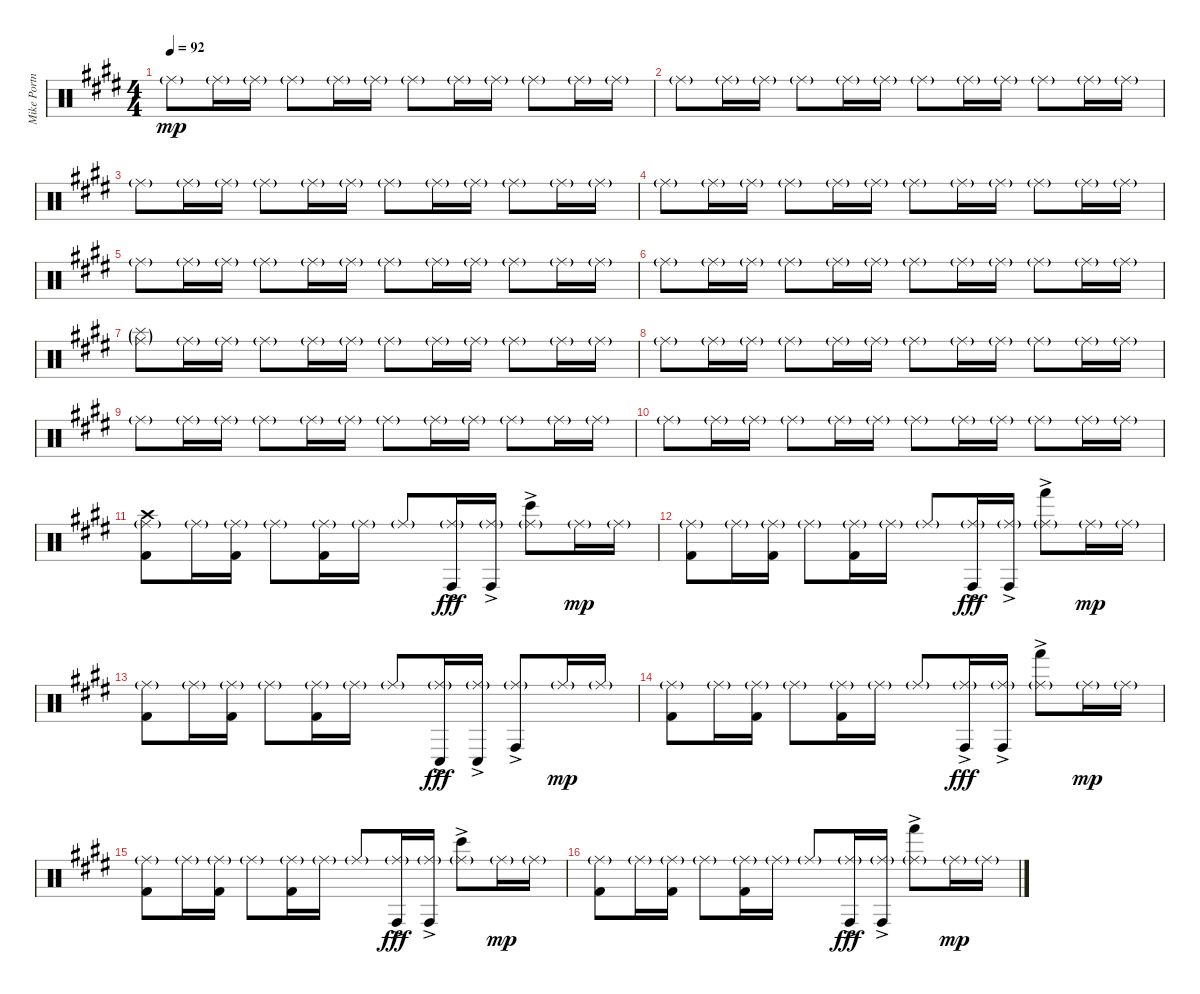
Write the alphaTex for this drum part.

\track ("Mike Portnoy" "Mike Portn") {instrument percussion}
\staff {score}
\articulation defaults
\ts (4 4)
\tempo 92
\clef neutral
\ks e "Ride (middle)"{g}.8{dy mp} "Ride (middle)"{g}.16 "Ride (middle)"{g}.16 "Ride (middle)"{g}.8 "Ride (middle)"{g}.16 "Ride (middle)"{g}.16 "Ride (middle)"{g}.8 "Ride (middle)"{g}.16 "Ride (middle)"{g}.16 "Ride (middle)"{g}.8 "Ride (middle)"{g}.16 "Ride (middle)"{g}.16
|
"Ride (middle)"{g}.8 "Ride (middle)"{g}.16 "Ride (middle)"{g}.16 "Ride (middle)"{g}.8 "Ride (middle)"{g}.16 "Ride (middle)"{g}.16 "Ride (middle)"{g}.8 "Ride (middle)"{g}.16 "Ride (middle)"{g}.16 "Ride (middle)"{g}.8 "Ride (middle)"{g}.16 "Ride (middle)"{g}.16 |
"Ride (middle)"{g}.8 "Ride (middle)"{g}.16 "Ride (middle)"{g}.16 "Ride (middle)"{g}.8 "Ride (middle)"{g}.16 "Ride (middle)"{g}.16 "Ride (middle)"{g}.8 "Ride (middle)"{g}.16 "Ride (middle)"{g}.16 "Ride (middle)"{g}.8 "Ride (middle)"{g}.16 "Ride (middle)"{g}.16 |
"Ride (middle)"{g}.8 "Ride (middle)"{g}.16 "Ride (middle)"{g}.16 "Ride (middle)"{g}.8 "Ride (middle)"{g}.16 "Ride (middle)"{g}.16 "Ride (middle)"{g}.8 "Ride (middle)"{g}.16 "Ride (middle)"{g}.16 "Ride (middle)"{g}.8 "Ride (middle)"{g}.16 "Ride (middle)"{g}.16 |
"Ride (middle)"{g}.8 "Ride (middle)"{g}.16 "Ride (middle)"{g}.16 "Ride (middle)"{g}.8 "Ride (middle)"{g}.16 "Ride (middle)"{g}.16 "Ride (middle)"{g}.8 "Ride (middle)"{g}.16 "Ride (middle)"{g}.16 "Ride (middle)"{g}.8 "Ride (middle)"{g}.16 "Ride (middle)"{g}.16 |
"Ride (middle)"{g}.8 "Ride (middle)"{g}.16 "Ride (middle)"{g}.16 "Ride (middle)"{g}.8 "Ride (middle)"{g}.16 "Ride (middle)"{g}.16 "Ride (middle)"{g}.8 "Ride (middle)"{g}.16 "Ride (middle)"{g}.16 "Ride (middle)"{g}.8 "Ride (middle)"{g}.16 "Ride (middle)"{g}.16 |
("Ride (middle)"{g} "Splash (hit)"{g}).8 "Ride (middle)"{g}.16 "Ride (middle)"{g}.16 "Ride (middle)"{g}.8 "Ride (middle)"{g}.16 "Ride (middle)"{g}.16 "Ride (middle)"{g}.8 "Ride (middle)"{g}.16 "Ride (middle)"{g}.16 "Ride (middle)"{g}.8 "Ride (middle)"{g}.16 "Ride (middle)"{g}.16 |
"Ride (middle)"{g}.8 "Ride (middle)"{g}.16 "Ride (middle)"{g}.16 "Ride (middle)"{g}.8 "Ride (middle)"{g}.16 "Ride (middle)"{g}.16 "Ride (middle)"{g}.8 "Ride (middle)"{g}.16 "Ride (middle)"{g}.16 "Ride (middle)"{g}.8 "Ride (middle)"{g}.16 "Ride (middle)"{g}.16 |
"Ride (middle)"{g}.8 "Ride (middle)"{g}.16 "Ride (middle)"{g}.16 "Ride (middle)"{g}.8 "Ride (middle)"{g}.16 "Ride (middle)"{g}.16 "Ride (middle)"{g}.8 "Ride (middle)"{g}.16 "Ride (middle)"{g}.16 "Ride (middle)"{g}.8 "Ride (middle)"{g}.16 "Ride (middle)"{g}.16 |
"Ride (middle)"{g}.8 "Ride (middle)"{g}.16 "Ride (middle)"{g}.16 "Ride (middle)"{g}.8 "Ride (middle)"{g}.16 "Ride (middle)"{g}.16 "Ride (middle)"{g}.8 "Ride (middle)"{g}.16 "Ride (middle)"{g}.16 "Ride (middle)"{g}.8 "Ride (middle)"{g}.16 "Ride (middle)"{g}.16 |
("Ride (middle)"{g} "Crash high (hit)" "Kick (hit) 2").8 "Ride (middle)"{g}.16 ("Ride (middle)"{g} "Kick (hit) 2").16 "Ride (middle)"{g}.8 ("Ride (middle)"{g} "Kick (hit) 2").16 "Ride (middle)"{g}.16 "Ride (middle)"{g}.8 ("Ride (middle)"{g} "Conga high (hit)"{ac}).16{dy fff} ("Ride (middle)"{g} "Conga high (hit)"{ac}).16 ("Ride (middle)"{g} "Bongo High (hit)"{ac}).8 "Ride (middle)"{g}.16{dy mp} "Ride (middle)"{g}.16 |
("Ride (middle)"{g} "Kick (hit) 2").8 "Ride (middle)"{g}.16 ("Ride (middle)"{g} "Kick (hit) 2").16 "Ride (middle)"{g}.8 ("Ride (middle)"{g} "Kick (hit) 2").16 "Ride (middle)"{g}.16 "Ride (middle)"{g}.8 ("Ride (middle)"{g} "Conga high (hit)"{ac}).16{dy fff} ("Ride (middle)"{g} "Conga high (hit)"{ac}).16 ("Ride (middle)"{g} "Hand (hit)"{ac}).8 "Ride (middle)"{g}.16{dy mp} "Ride (middle)"{g}.16 |
("Ride (middle)"{g} "Kick (hit) 2").8 "Ride (middle)"{g}.16 ("Ride (middle)"{g} "Kick (hit) 2").16 "Ride (middle)"{g}.8 ("Ride (middle)"{g} "Kick (hit) 2").16 "Ride (middle)"{g}.16 "Ride (middle)"{g}.8 ("Ride (middle)"{g} "Conga low (hit)"{ac}).16{dy fff} ("Ride (middle)"{g} "Conga low (hit)"{ac}).16 ("Ride (middle)"{g} "Conga high (hit)"{ac}).8 "Ride (middle)"{g}.16{dy mp} "Ride (middle)"{g}.16 |
("Ride (middle)"{g} "Kick (hit) 2").8 "Ride (middle)"{g}.16 ("Ride (middle)"{g} "Kick (hit) 2").16 "Ride (middle)"{g}.8 ("Ride (middle)"{g} "Kick (hit) 2").16 "Ride (middle)"{g}.16 "Ride (middle)"{g}.8 ("Ride (middle)"{g} "Conga high (hit)"{ac}).16{dy fff} ("Ride (middle)"{g} "Conga high (hit)"{ac}).16 ("Ride (middle)"{g} "Hand (hit)"{ac}).8 "Ride (middle)"{g}.16{dy mp} "Ride (middle)"{g}.16 |
("Ride (middle)"{g} "Kick (hit) 2").8 "Ride (middle)"{g}.16 ("Ride (middle)"{g} "Kick (hit) 2").16 "Ride (middle)"{g}.8 ("Ride (middle)"{g} "Kick (hit) 2").16 "Ride (middle)"{g}.16 "Ride (middle)"{g}.8 ("Ride (middle)"{g} "Conga high (hit)"{ac}).16{dy fff} ("Ride (middle)"{g} "Conga high (hit)"{ac}).16 ("Ride (middle)"{g} "Bongo High (hit)"{ac}).8 "Ride (middle)"{g}.16{dy mp} "Ride (middle)"{g}.16 |
("Ride (middle)"{g} "Kick (hit) 2").8 "Ride (middle)"{g}.16 ("Ride (middle)"{g} "Kick (hit) 2").16 "Ride (middle)"{g}.8 ("Ride (middle)"{g} "Kick (hit) 2").16 "Ride (middle)"{g}.16 "Ride (middle)"{g}.8 ("Ride (middle)"{g} "Conga high (hit)"{ac}).16{dy fff} ("Ride (middle)"{g} "Conga high (hit)"{ac}).16 ("Ride (middle)"{g} "Hand (hit)"{ac}).8 "Ride (middle)"{g}.16{dy mp} "Ride (middle)"{g}.16
